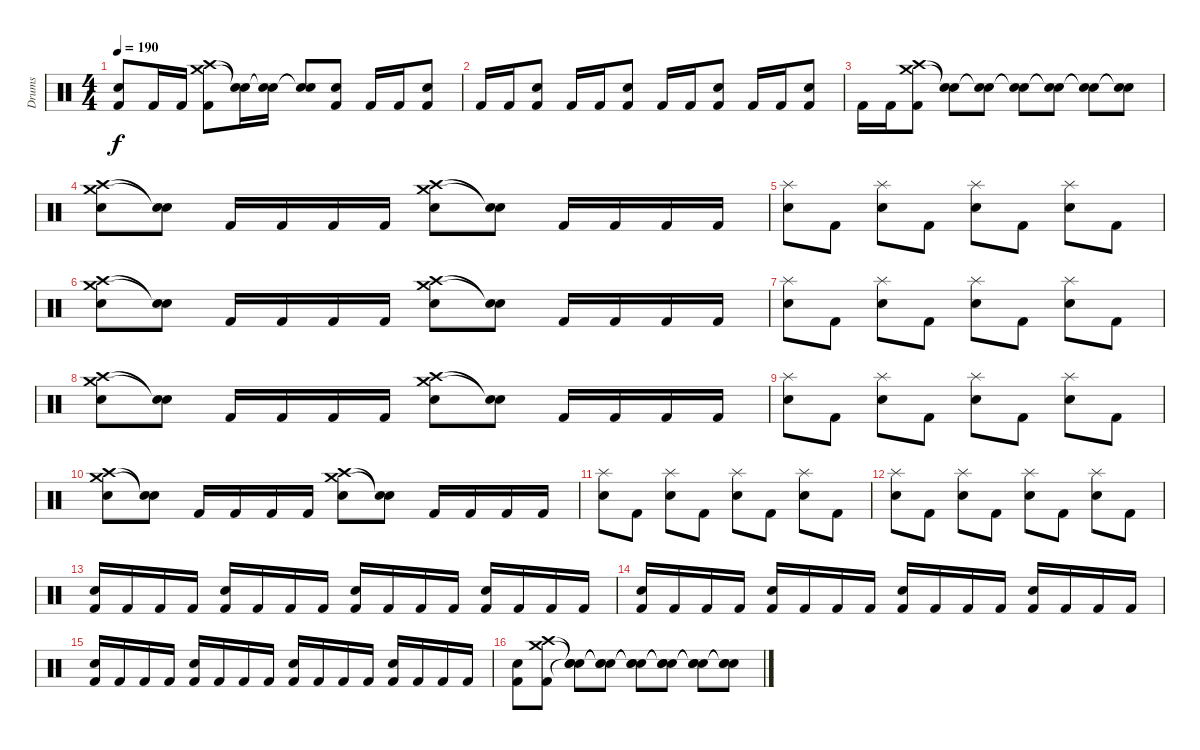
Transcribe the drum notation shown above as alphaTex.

\track ("Drums" "Drums") {instrument percussion}
\staff {score}
\articulation defaults
\ts (4 4)
\tempo 190
\clef neutral
\ks c
("Snare (hit) 2" "Kick (hit) 2").8{dy f} "Kick (hit) 2".16 "Kick (hit) 2".16 ("Crash medium (hit)" "Crash high (hit)" "Kick (hit) 2").8 ("Snare (hit)"{t} "Snare (hit)"{t}).16 ("Snare (hit)"{t} "Snare (hit)"{t}).16 ("Snare (hit)"{t} "Snare (hit)"{t}).8 ("Snare (hit) 2" "Kick (hit) 2").8 "Kick (hit) 2".16 "Kick (hit) 2".16 ("Snare (hit) 2" "Kick (hit) 2").8 |
"Kick (hit) 2".16 "Kick (hit) 2".16 ("Snare (hit) 2" "Kick (hit) 2").8 "Kick (hit) 2".16 "Kick (hit) 2".16 ("Snare (hit) 2" "Kick (hit) 2").8 "Kick (hit) 2".16 "Kick (hit) 2".16 ("Snare (hit) 2" "Kick (hit) 2").8 "Kick (hit) 2".16 "Kick (hit) 2".16 ("Snare (hit) 2" "Kick (hit) 2").8 |
"Kick (hit) 2".16 "Kick (hit) 2".16 ("Crash medium (hit)" "Crash high (hit)" "Kick (hit) 2").8 ("Snare (hit)"{t} "Snare (hit)"{t}).8 ("Snare (hit)"{t} "Snare (hit)"{t}).8 ("Snare (hit)"{t} "Snare (hit)"{t}).8 ("Snare (hit)"{t} "Snare (hit)"{t}).8 ("Snare (hit)"{t} "Snare (hit)"{t}).8 ("Snare (hit)"{t} "Snare (hit)"{t}).8 |
("Crash medium (hit)" "Crash high (hit)" "Snare (hit) 2").8 ("Snare (hit)"{t} "Snare (hit)"{t}).8 "Kick (hit) 2".16 "Kick (hit) 2".16 "Kick (hit) 2".16 "Kick (hit) 2".16 ("Crash medium (hit)" "Crash high (hit)" "Snare (hit) 2").8 ("Snare (hit)"{t} "Snare (hit)"{t}).8 "Kick (hit) 2".16 "Kick (hit) 2".16 "Kick (hit) 2".16 "Kick (hit) 2".16 |
("Splash (hit)" "Snare (hit) 2").8 "Kick (hit) 2".8 ("Splash (hit)" "Snare (hit) 2").8 "Kick (hit) 2".8 ("Splash (hit)" "Snare (hit) 2").8 "Kick (hit) 2".8 ("Splash (hit)" "Snare (hit) 2").8 "Kick (hit) 2".8 |
("Crash medium (hit)" "Crash high (hit)" "Snare (hit) 2").8 ("Snare (hit)"{t} "Snare (hit)"{t}).8 "Kick (hit) 2".16 "Kick (hit) 2".16 "Kick (hit) 2".16 "Kick (hit) 2".16 ("Crash medium (hit)" "Crash high (hit)" "Snare (hit) 2").8 ("Snare (hit)"{t} "Snare (hit)"{t}).8 "Kick (hit) 2".16 "Kick (hit) 2".16 "Kick (hit) 2".16 "Kick (hit) 2".16 |
("Splash (hit)" "Snare (hit) 2").8 "Kick (hit) 2".8 ("Splash (hit)" "Snare (hit) 2").8 "Kick (hit) 2".8 ("Splash (hit)" "Snare (hit) 2").8 "Kick (hit) 2".8 ("Splash (hit)" "Snare (hit) 2").8 "Kick (hit) 2".8 |
("Crash medium (hit)" "Crash high (hit)" "Snare (hit) 2").8 ("Snare (hit)"{t} "Snare (hit)"{t}).8 "Kick (hit) 2".16 "Kick (hit) 2".16 "Kick (hit) 2".16 "Kick (hit) 2".16 ("Crash medium (hit)" "Crash high (hit)" "Snare (hit) 2").8 ("Snare (hit)"{t} "Snare (hit)"{t}).8 "Kick (hit) 2".16 "Kick (hit) 2".16 "Kick (hit) 2".16 "Kick (hit) 2".16 |
("Splash (hit)" "Snare (hit) 2").8 "Kick (hit) 2".8 ("Splash (hit)" "Snare (hit) 2").8 "Kick (hit) 2".8 ("Splash (hit)" "Snare (hit) 2").8 "Kick (hit) 2".8 ("Splash (hit)" "Snare (hit) 2").8 "Kick (hit) 2".8 |
("Crash medium (hit)" "Crash high (hit)" "Snare (hit) 2").8 ("Snare (hit)"{t} "Snare (hit)"{t}).8 "Kick (hit) 2".16 "Kick (hit) 2".16 "Kick (hit) 2".16 "Kick (hit) 2".16 ("Crash medium (hit)" "Crash high (hit)" "Snare (hit) 2").8 ("Snare (hit)"{t} "Snare (hit)"{t}).8 "Kick (hit) 2".16 "Kick (hit) 2".16 "Kick (hit) 2".16 "Kick (hit) 2".16 |
("Splash (hit)" "Snare (hit) 2").8 "Kick (hit) 2".8 ("Splash (hit)" "Snare (hit) 2").8 "Kick (hit) 2".8 ("Splash (hit)" "Snare (hit) 2").8 "Kick (hit) 2".8 ("Splash (hit)" "Snare (hit) 2").8 "Kick (hit) 2".8 |
("Splash (hit)" "Snare (hit) 2").8 "Kick (hit) 2".8 ("Splash (hit)" "Snare (hit) 2").8 "Kick (hit) 2".8 ("Splash (hit)" "Snare (hit) 2").8 "Kick (hit) 2".8 ("Splash (hit)" "Snare (hit) 2").8 "Kick (hit) 2".8 |
("Snare (hit) 2" "Kick (hit) 2").16 "Kick (hit) 2".16 "Kick (hit) 2".16 "Kick (hit) 2".16 ("Snare (hit) 2" "Kick (hit) 2").16 "Kick (hit) 2".16 "Kick (hit) 2".16 "Kick (hit) 2".16 ("Snare (hit) 2" "Kick (hit) 2").16 "Kick (hit) 2".16 "Kick (hit) 2".16 "Kick (hit) 2".16 ("Snare (hit) 2" "Kick (hit) 2").16 "Kick (hit) 2".16 "Kick (hit) 2".16 "Kick (hit) 2".16 |
("Snare (hit) 2" "Kick (hit) 2").16 "Kick (hit) 2".16 "Kick (hit) 2".16 "Kick (hit) 2".16 ("Snare (hit) 2" "Kick (hit) 2").16 "Kick (hit) 2".16 "Kick (hit) 2".16 "Kick (hit) 2".16 ("Snare (hit) 2" "Kick (hit) 2").16 "Kick (hit) 2".16 "Kick (hit) 2".16 "Kick (hit) 2".16 ("Snare (hit) 2" "Kick (hit) 2").16 "Kick (hit) 2".16 "Kick (hit) 2".16 "Kick (hit) 2".16 |
("Snare (hit) 2" "Kick (hit) 2").16 "Kick (hit) 2".16 "Kick (hit) 2".16 "Kick (hit) 2".16 ("Snare (hit) 2" "Kick (hit) 2").16 "Kick (hit) 2".16 "Kick (hit) 2".16 "Kick (hit) 2".16 ("Snare (hit) 2" "Kick (hit) 2").16 "Kick (hit) 2".16 "Kick (hit) 2".16 "Kick (hit) 2".16 ("Snare (hit) 2" "Kick (hit) 2").16 "Kick (hit) 2".16 "Kick (hit) 2".16 "Kick (hit) 2".16 |
("Snare (hit) 2" "Kick (hit) 2").8 ("Crash medium (hit)" "Crash high (hit)" "Kick (hit) 2").8 ("Snare (hit)"{t} "Snare (hit)"{t} "Snare (hit)"{t}).8 ("Snare (hit)"{t} "Snare (hit)"{t} "Snare (hit)"{t}).8 ("Snare (hit)"{t} "Snare (hit)"{t} "Snare (hit)"{t}).8 ("Snare (hit)"{t} "Snare (hit)"{t} "Snare (hit)"{t}).8 ("Snare (hit)"{t} "Snare (hit)"{t} "Snare (hit)"{t}).8 ("Snare (hit)"{t} "Snare (hit)"{t} "Snare (hit)"{t}).8
